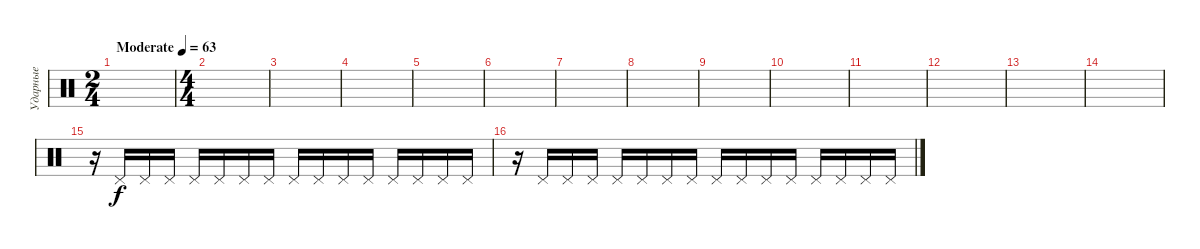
\track ("Ударные" "Ударные") {instrument percussion}
\staff {score}
\articulation defaults
\ts (2 4)
\tempo (63 "Moderate")
\clef neutral
\ks c
|
\ts (4 4)
|
|
|
|
|
|
|
|
|
|
|
|
|
r.16 "Pedal Hi-Hat (hit)".16 "Pedal Hi-Hat (hit)".16 "Pedal Hi-Hat (hit)".16 "Pedal Hi-Hat (hit)".16 "Pedal Hi-Hat (hit)".16 "Pedal Hi-Hat (hit)".16 "Pedal Hi-Hat (hit)".16 "Pedal Hi-Hat (hit)".16 "Pedal Hi-Hat (hit)".16 "Pedal Hi-Hat (hit)".16 "Pedal Hi-Hat (hit)".16 "Pedal Hi-Hat (hit)".16 "Pedal Hi-Hat (hit)".16 "Pedal Hi-Hat (hit)".16 "Pedal Hi-Hat (hit)".16 |
r.16 "Pedal Hi-Hat (hit)".16 "Pedal Hi-Hat (hit)".16 "Pedal Hi-Hat (hit)".16 "Pedal Hi-Hat (hit)".16 "Pedal Hi-Hat (hit)".16 "Pedal Hi-Hat (hit)".16 "Pedal Hi-Hat (hit)".16 "Pedal Hi-Hat (hit)".16 "Pedal Hi-Hat (hit)".16 "Pedal Hi-Hat (hit)".16 "Pedal Hi-Hat (hit)".16 "Pedal Hi-Hat (hit)".16 "Pedal Hi-Hat (hit)".16 "Pedal Hi-Hat (hit)".16 "Pedal Hi-Hat (hit)".16
